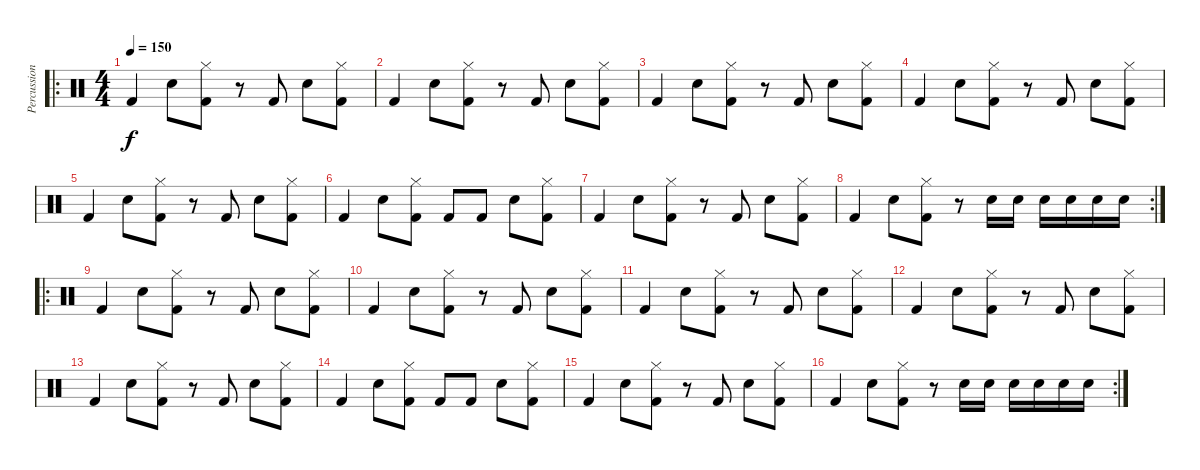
\track ("Percussion" "Percussion") {instrument percussion}
\staff {score}
\articulation defaults
\ro
\ts (4 4)
\tempo 150
\clef neutral
\ks c "Kick (hit) 2".4{dy f} "Snare (hit) 2".8
("Kick (hit) 2" "Hi-Hat (closed)").8 r.8 "Kick (hit) 2".8 "Snare (hit) 2".8 ("Kick (hit) 2" "Hi-Hat (closed)").8 |
"Kick (hit) 2".4 "Snare (hit) 2".8 ("Kick (hit) 2" "Hi-Hat (closed)").8 r.8 "Kick (hit) 2".8 "Snare (hit) 2".8 ("Kick (hit) 2" "Hi-Hat (closed)").8 |
"Kick (hit) 2".4 "Snare (hit) 2".8 ("Kick (hit) 2" "Hi-Hat (closed)").8 r.8 "Kick (hit) 2".8 "Snare (hit) 2".8 ("Kick (hit) 2" "Hi-Hat (closed)").8 |
"Kick (hit) 2".4 "Snare (hit) 2".8 ("Kick (hit) 2" "Hi-Hat (closed)").8 r.8 "Kick (hit) 2".8 "Snare (hit) 2".8 ("Kick (hit) 2" "Hi-Hat (closed)").8 |
"Kick (hit) 2".4 "Snare (hit) 2".8 ("Kick (hit) 2" "Hi-Hat (closed)").8 r.8 "Kick (hit) 2".8 "Snare (hit) 2".8 ("Kick (hit) 2" "Hi-Hat (closed)").8 |
"Kick (hit) 2".4 "Snare (hit) 2".8 ("Kick (hit) 2" "Hi-Hat (closed)").8 "Kick (hit) 2".8 "Kick (hit) 2".8 "Snare (hit) 2".8 ("Kick (hit) 2" "Hi-Hat (closed)").8 |
"Kick (hit) 2".4 "Snare (hit) 2".8 ("Kick (hit) 2" "Hi-Hat (closed)").8 r.8 "Kick (hit) 2".8 "Snare (hit) 2".8 ("Kick (hit) 2" "Hi-Hat (closed)").8 |
\rc 2 "Kick (hit) 2".4 "Snare (hit) 2".8
("Kick (hit) 2" "Hi-Hat (closed)").8 r.8 "Snare (hit) 2".16 "Snare (hit) 2".16 "Snare (hit) 2".16 "Snare (hit) 2".16 "Snare (hit) 2".16 "Snare (hit) 2".16 |
\ro "Kick (hit) 2".4 "Snare (hit) 2".8
("Kick (hit) 2" "Hi-Hat (closed)").8 r.8 "Kick (hit) 2".8 "Snare (hit) 2".8 ("Kick (hit) 2" "Hi-Hat (closed)").8 |
"Kick (hit) 2".4 "Snare (hit) 2".8 ("Kick (hit) 2" "Hi-Hat (closed)").8 r.8 "Kick (hit) 2".8 "Snare (hit) 2".8 ("Kick (hit) 2" "Hi-Hat (closed)").8 |
"Kick (hit) 2".4 "Snare (hit) 2".8 ("Kick (hit) 2" "Hi-Hat (closed)").8 r.8 "Kick (hit) 2".8 "Snare (hit) 2".8 ("Kick (hit) 2" "Hi-Hat (closed)").8 |
"Kick (hit) 2".4 "Snare (hit) 2".8 ("Kick (hit) 2" "Hi-Hat (closed)").8 r.8 "Kick (hit) 2".8 "Snare (hit) 2".8 ("Kick (hit) 2" "Hi-Hat (closed)").8 |
"Kick (hit) 2".4 "Snare (hit) 2".8 ("Kick (hit) 2" "Hi-Hat (closed)").8 r.8 "Kick (hit) 2".8 "Snare (hit) 2".8 ("Kick (hit) 2" "Hi-Hat (closed)").8 |
"Kick (hit) 2".4 "Snare (hit) 2".8 ("Kick (hit) 2" "Hi-Hat (closed)").8 "Kick (hit) 2".8 "Kick (hit) 2".8 "Snare (hit) 2".8 ("Kick (hit) 2" "Hi-Hat (closed)").8 |
"Kick (hit) 2".4 "Snare (hit) 2".8 ("Kick (hit) 2" "Hi-Hat (closed)").8 r.8 "Kick (hit) 2".8 "Snare (hit) 2".8 ("Kick (hit) 2" "Hi-Hat (closed)").8 |
\rc 2 "Kick (hit) 2".4 "Snare (hit) 2".8
("Kick (hit) 2" "Hi-Hat (closed)").8 r.8 "Snare (hit) 2".16 "Snare (hit) 2".16 "Snare (hit) 2".16 "Snare (hit) 2".16 "Snare (hit) 2".16 "Snare (hit) 2".16
